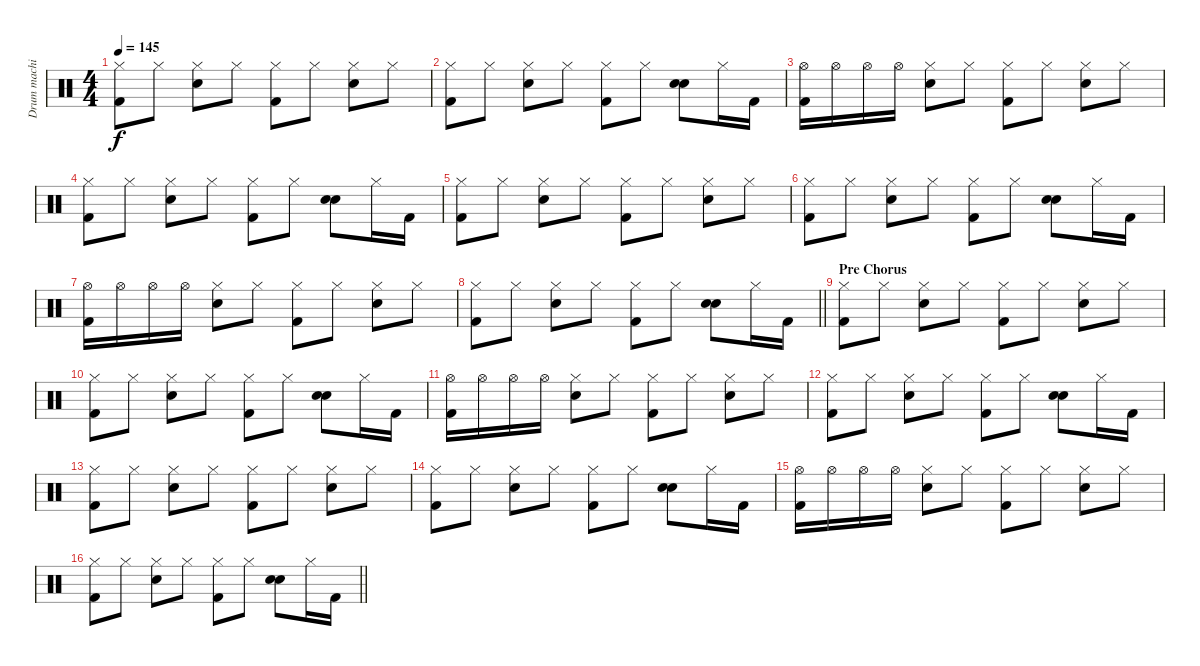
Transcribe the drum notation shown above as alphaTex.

\track ("Drum machine" "Drum machi") {instrument percussion}
\staff {score}
\articulation defaults
\ts (4 4)
\tempo 145
\clef neutral
\ks c
("Hi-Hat (closed)" "Kick (hit) 2").8{dy f} "Hi-Hat (closed)".8 ("Hi-Hat (closed)" "Electric Snare (hit)").8 "Hi-Hat (closed)".8 ("Hi-Hat (closed)" "Kick (hit) 2").8 "Hi-Hat (closed)".8 ("Hi-Hat (closed)" "Electric Snare (hit)").8 "Hi-Hat (closed)".8 |
("Hi-Hat (closed)" "Kick (hit) 2").8 "Hi-Hat (closed)".8 ("Hi-Hat (closed)" "Electric Snare (hit)").8 "Hi-Hat (closed)".8 ("Hi-Hat (closed)" "Kick (hit) 2").8 "Hi-Hat (closed)".8 ("Snare (hit) 2" "Electric Snare (hit)").8 "Hi-Hat (closed)".16 "Kick (hit) 2".16 |
("Hi-Hat (open)" "Kick (hit) 2").16 "Hi-Hat (open)".16 "Hi-Hat (open)".16 "Hi-Hat (open)".16 ("Hi-Hat (closed)" "Electric Snare (hit)").8 "Hi-Hat (closed)".8 ("Hi-Hat (closed)" "Kick (hit) 2").8 "Hi-Hat (closed)".8 ("Hi-Hat (closed)" "Electric Snare (hit)").8 "Hi-Hat (closed)".8 |
("Hi-Hat (closed)" "Kick (hit) 2").8 "Hi-Hat (closed)".8 ("Hi-Hat (closed)" "Electric Snare (hit)").8 "Hi-Hat (closed)".8 ("Hi-Hat (closed)" "Kick (hit) 2").8 "Hi-Hat (closed)".8 ("Snare (hit) 2" "Electric Snare (hit)").8 "Hi-Hat (closed)".16 "Kick (hit) 2".16 |
("Hi-Hat (closed)" "Kick (hit) 2").8 "Hi-Hat (closed)".8 ("Hi-Hat (closed)" "Electric Snare (hit)").8 "Hi-Hat (closed)".8 ("Hi-Hat (closed)" "Kick (hit) 2").8 "Hi-Hat (closed)".8 ("Hi-Hat (closed)" "Electric Snare (hit)").8 "Hi-Hat (closed)".8 |
("Hi-Hat (closed)" "Kick (hit) 2").8 "Hi-Hat (closed)".8 ("Hi-Hat (closed)" "Electric Snare (hit)").8 "Hi-Hat (closed)".8 ("Hi-Hat (closed)" "Kick (hit) 2").8 "Hi-Hat (closed)".8 ("Snare (hit) 2" "Electric Snare (hit)").8 "Hi-Hat (closed)".16 "Kick (hit) 2".16 |
("Hi-Hat (open)" "Kick (hit) 2").16 "Hi-Hat (open)".16 "Hi-Hat (open)".16 "Hi-Hat (open)".16 ("Hi-Hat (closed)" "Electric Snare (hit)").8 "Hi-Hat (closed)".8 ("Hi-Hat (closed)" "Kick (hit) 2").8 "Hi-Hat (closed)".8 ("Hi-Hat (closed)" "Electric Snare (hit)").8 "Hi-Hat (closed)".8 |
\barLineRight lightlight
("Hi-Hat (closed)" "Kick (hit) 2").8 "Hi-Hat (closed)".8 ("Hi-Hat (closed)" "Electric Snare (hit)").8 "Hi-Hat (closed)".8 ("Hi-Hat (closed)" "Kick (hit) 2").8 "Hi-Hat (closed)".8 ("Snare (hit) 2" "Electric Snare (hit)").8 "Hi-Hat (closed)".16 "Kick (hit) 2".16 |
\section ("" "Pre Chorus")
("Hi-Hat (closed)" "Kick (hit) 2").8 "Hi-Hat (closed)".8 ("Hi-Hat (closed)" "Electric Snare (hit)").8 "Hi-Hat (closed)".8 ("Hi-Hat (closed)" "Kick (hit) 2").8 "Hi-Hat (closed)".8 ("Hi-Hat (closed)" "Electric Snare (hit)").8 "Hi-Hat (closed)".8 |
("Hi-Hat (closed)" "Kick (hit) 2").8 "Hi-Hat (closed)".8 ("Hi-Hat (closed)" "Electric Snare (hit)").8 "Hi-Hat (closed)".8 ("Hi-Hat (closed)" "Kick (hit) 2").8 "Hi-Hat (closed)".8 ("Snare (hit) 2" "Electric Snare (hit)").8 "Hi-Hat (closed)".16 "Kick (hit) 2".16 |
("Hi-Hat (open)" "Kick (hit) 2").16 "Hi-Hat (open)".16 "Hi-Hat (open)".16 "Hi-Hat (open)".16 ("Hi-Hat (closed)" "Electric Snare (hit)").8 "Hi-Hat (closed)".8 ("Hi-Hat (closed)" "Kick (hit) 2").8 "Hi-Hat (closed)".8 ("Hi-Hat (closed)" "Electric Snare (hit)").8 "Hi-Hat (closed)".8 |
("Hi-Hat (closed)" "Kick (hit) 2").8 "Hi-Hat (closed)".8 ("Hi-Hat (closed)" "Electric Snare (hit)").8 "Hi-Hat (closed)".8 ("Hi-Hat (closed)" "Kick (hit) 2").8 "Hi-Hat (closed)".8 ("Snare (hit) 2" "Electric Snare (hit)").8 "Hi-Hat (closed)".16 "Kick (hit) 2".16 |
("Hi-Hat (closed)" "Kick (hit) 2").8 "Hi-Hat (closed)".8 ("Hi-Hat (closed)" "Electric Snare (hit)").8 "Hi-Hat (closed)".8 ("Hi-Hat (closed)" "Kick (hit) 2").8 "Hi-Hat (closed)".8 ("Hi-Hat (closed)" "Electric Snare (hit)").8 "Hi-Hat (closed)".8 |
("Hi-Hat (closed)" "Kick (hit) 2").8 "Hi-Hat (closed)".8 ("Hi-Hat (closed)" "Electric Snare (hit)").8 "Hi-Hat (closed)".8 ("Hi-Hat (closed)" "Kick (hit) 2").8 "Hi-Hat (closed)".8 ("Snare (hit) 2" "Electric Snare (hit)").8 "Hi-Hat (closed)".16 "Kick (hit) 2".16 |
("Hi-Hat (open)" "Kick (hit) 2").16 "Hi-Hat (open)".16 "Hi-Hat (open)".16 "Hi-Hat (open)".16 ("Hi-Hat (closed)" "Electric Snare (hit)").8 "Hi-Hat (closed)".8 ("Hi-Hat (closed)" "Kick (hit) 2").8 "Hi-Hat (closed)".8 ("Hi-Hat (closed)" "Electric Snare (hit)").8 "Hi-Hat (closed)".8 |
\barLineRight lightlight
("Hi-Hat (closed)" "Kick (hit) 2").8 "Hi-Hat (closed)".8 ("Hi-Hat (closed)" "Electric Snare (hit)").8 "Hi-Hat (closed)".8 ("Hi-Hat (closed)" "Kick (hit) 2").8 "Hi-Hat (closed)".8 ("Snare (hit) 2" "Electric Snare (hit)").8 "Hi-Hat (closed)".16 "Kick (hit) 2".16
